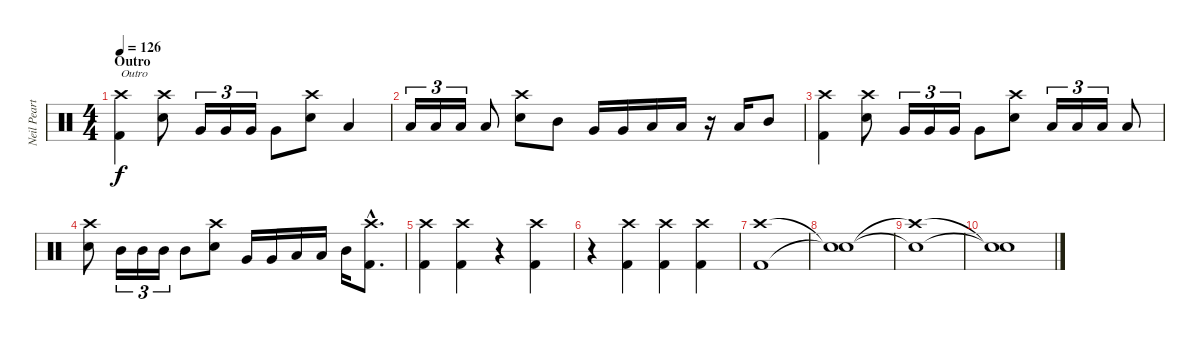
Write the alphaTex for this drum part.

\track ("Neil Peart" "Neil Peart") {instrument percussion}
\staff {score}
\articulation defaults
\ts (4 4)
\section ("" "Outro")
\tempo 126
\clef neutral
\ks c
("Crash high (hit)" "Kick (hit) 2").4{txt "Outro" dy f} ("Electric Snare (hit)" "Crash high (hit)").8 "Very Low Tom (hit)".16{tu (3 2)} "Very Low Tom (hit)".16{tu (3 2)} "Very Low Tom (hit)".16{tu (3 2)} "Very Low Tom (hit)".8 ("Electric Snare (hit)" "Crash high (hit)").8 "Low Tom (hit)".4 |
"Low Tom (hit)".16{tu (3 2)} "Low Tom (hit)".16{tu (3 2)} "Low Tom (hit)".16{tu (3 2)} "Low Tom (hit)".8 ("Electric Snare (hit)" "Crash high (hit)").8 "Mid Tom (hit)".8 "Very Low Tom (hit)".16 "Very Low Tom (hit)".16 "Low Tom (hit)".16 "Low Tom (hit)".16 r.16 "Low Tom (hit)".16 "Mid Tom (hit)".8 |
("Crash high (hit)" "Kick (hit) 2").4 ("Electric Snare (hit)" "Crash high (hit)").8 "Very Low Tom (hit)".16{tu (3 2)} "Very Low Tom (hit)".16{tu (3 2)} "Very Low Tom (hit)".16{tu (3 2)} "Very Low Tom (hit)".8 ("Electric Snare (hit)" "Crash high (hit)").8 "Low Tom (hit)".16{tu (3 2)} "Low Tom (hit)".16{tu (3 2)} "Low Tom (hit)".16{tu (3 2)} "Low Tom (hit)".8 |
("Electric Snare (hit)" "Crash high (hit)").8 "Mid Tom (hit)".16{tu (3 2)} "Mid Tom (hit)".16{tu (3 2)} "Mid Tom (hit)".16{tu (3 2)} "Mid Tom (hit)".8 ("Electric Snare (hit)" "Crash high (hit)").8 "Very Low Tom (hit)".16 "Very Low Tom (hit)".16 "Low Tom (hit)".16 "Low Tom (hit)".16 "Mid Tom (hit)".16 ("Crash high (hit)"{hac} "Kick (hit) 2"{hac}).8{d} |
("Crash high (hit)" "Kick (hit) 2").4 ("Crash high (hit)" "Kick (hit) 2").4 r.4 ("Crash high (hit)" "Kick (hit) 2").4 |
r.4 ("Crash high (hit)" "Kick (hit) 2").4 ("Crash high (hit)" "Kick (hit) 2").4 ("Crash high (hit)" "Kick (hit) 2").4 |
("Crash high (hit)" "Kick (hit) 2").1 |
("Snare (hit)"{t} "Snare (hit)"{t}).1 |
("Crash high (hit)"{t} "Snare (hit)"{t}).1 |
("Snare (hit)"{t} "Snare (hit)"{t}).1
